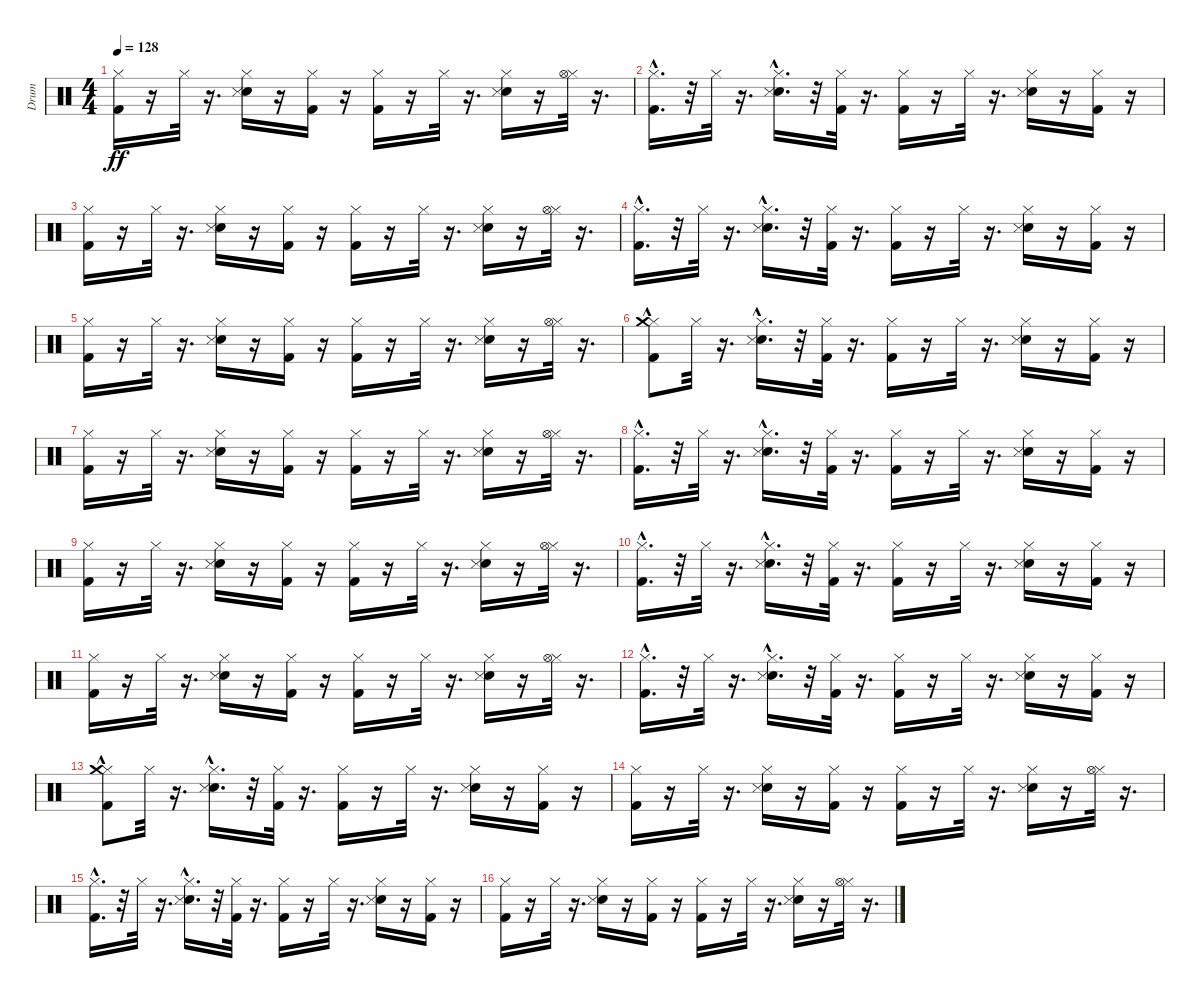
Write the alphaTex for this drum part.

\track ("Drum" "Drum") {instrument percussion}
\staff {score}
\articulation defaults
\ts (4 4)
\tempo 128
\clef neutral
\ks c
("Hi-Hat (closed)" "Kick (hit) 2").16{dy ff} r.16 "Hi-Hat (closed)".32 r.16{d} ("Electric Snare (hit)" "Hi-Hat (closed)" "Snare (side stick) 3").16 r.16 ("Kick (hit) 2" "Hi-Hat (closed)").16 r.16 ("Kick (hit) 2" "Hi-Hat (closed)").16 r.16 "Hi-Hat (closed)".32 r.16{d} ("Electric Snare (hit)" "Hi-Hat (closed)" "Snare (side stick) 3").16 r.16 ("Hi-Hat (closed)" "Hi-Hat (open)").32 r.16{d} |
("Kick (hit) 2"{hac} "Hi-Hat (closed)").16{d} r.32 "Hi-Hat (closed)".32 r.16{d} ("Electric Snare (hit)" "Hi-Hat (closed)" "Snare (side stick) 3"{hac}).16{d} r.32 ("Kick (hit) 2" "Hi-Hat (closed)").32 r.16{d} ("Kick (hit) 2" "Hi-Hat (closed)").16 r.16 "Hi-Hat (closed)".32 r.16{d} ("Electric Snare (hit)" "Hi-Hat (closed)" "Snare (side stick) 3").16 r.16 ("Kick (hit) 2" "Hi-Hat (closed)").16 r.16 |
("Hi-Hat (closed)" "Kick (hit) 2").16 r.16 "Hi-Hat (closed)".32 r.16{d} ("Electric Snare (hit)" "Hi-Hat (closed)" "Snare (side stick) 3").16 r.16 ("Kick (hit) 2" "Hi-Hat (closed)").16 r.16 ("Kick (hit) 2" "Hi-Hat (closed)").16 r.16 "Hi-Hat (closed)".32 r.16{d} ("Electric Snare (hit)" "Hi-Hat (closed)" "Snare (side stick) 3").16 r.16 ("Hi-Hat (closed)" "Hi-Hat (open)").32 r.16{d} |
("Kick (hit) 2"{hac} "Hi-Hat (closed)").16{d} r.32 "Hi-Hat (closed)".32 r.16{d} ("Electric Snare (hit)" "Hi-Hat (closed)" "Snare (side stick) 3"{hac}).16{d} r.32 ("Kick (hit) 2" "Hi-Hat (closed)").32 r.16{d} ("Kick (hit) 2" "Hi-Hat (closed)").16 r.16 "Hi-Hat (closed)".32 r.16{d} ("Electric Snare (hit)" "Hi-Hat (closed)" "Snare (side stick) 3").16 r.16 ("Kick (hit) 2" "Hi-Hat (closed)").16 r.16 |
("Hi-Hat (closed)" "Kick (hit) 2").16 r.16 "Hi-Hat (closed)".32 r.16{d} ("Electric Snare (hit)" "Hi-Hat (closed)" "Snare (side stick) 3").16 r.16 ("Kick (hit) 2" "Hi-Hat (closed)").16 r.16 ("Kick (hit) 2" "Hi-Hat (closed)").16 r.16 "Hi-Hat (closed)".32 r.16{d} ("Electric Snare (hit)" "Hi-Hat (closed)" "Snare (side stick) 3").16 r.16 ("Hi-Hat (closed)" "Hi-Hat (open)").32 r.16{d} |
("Kick (hit) 2"{hac} "Hi-Hat (closed)" "Crash medium (hit)").8 "Hi-Hat (closed)".32 r.16{d} ("Electric Snare (hit)" "Hi-Hat (closed)" "Snare (side stick) 3"{hac}).16{d} r.32 ("Kick (hit) 2" "Hi-Hat (closed)").32 r.16{d} ("Kick (hit) 2" "Hi-Hat (closed)").16 r.16 "Hi-Hat (closed)".32 r.16{d} ("Electric Snare (hit)" "Hi-Hat (closed)" "Snare (side stick) 3").16 r.16 ("Kick (hit) 2" "Hi-Hat (closed)").16 r.16 |
("Hi-Hat (closed)" "Kick (hit) 2").16 r.16 "Hi-Hat (closed)".32 r.16{d} ("Electric Snare (hit)" "Hi-Hat (closed)" "Snare (side stick) 3").16 r.16 ("Kick (hit) 2" "Hi-Hat (closed)").16 r.16 ("Kick (hit) 2" "Hi-Hat (closed)").16 r.16 "Hi-Hat (closed)".32 r.16{d} ("Electric Snare (hit)" "Hi-Hat (closed)" "Snare (side stick) 3").16 r.16 ("Hi-Hat (closed)" "Hi-Hat (open)").32 r.16{d} |
("Kick (hit) 2"{hac} "Hi-Hat (closed)").16{d} r.32 "Hi-Hat (closed)".32 r.16{d} ("Electric Snare (hit)" "Hi-Hat (closed)" "Snare (side stick) 3"{hac}).16{d} r.32 ("Kick (hit) 2" "Hi-Hat (closed)").32 r.16{d} ("Kick (hit) 2" "Hi-Hat (closed)").16 r.16 "Hi-Hat (closed)".32 r.16{d} ("Electric Snare (hit)" "Hi-Hat (closed)" "Snare (side stick) 3").16 r.16 ("Kick (hit) 2" "Hi-Hat (closed)").16 r.16 |
("Hi-Hat (closed)" "Kick (hit) 2").16 r.16 "Hi-Hat (closed)".32 r.16{d} ("Electric Snare (hit)" "Hi-Hat (closed)" "Snare (side stick) 3").16 r.16 ("Kick (hit) 2" "Hi-Hat (closed)").16 r.16 ("Kick (hit) 2" "Hi-Hat (closed)").16 r.16 "Hi-Hat (closed)".32 r.16{d} ("Electric Snare (hit)" "Hi-Hat (closed)" "Snare (side stick) 3").16 r.16 ("Hi-Hat (closed)" "Hi-Hat (open)").32 r.16{d} |
("Kick (hit) 2"{hac} "Hi-Hat (closed)").16{d} r.32 "Hi-Hat (closed)".32 r.16{d} ("Electric Snare (hit)" "Hi-Hat (closed)" "Snare (side stick) 3"{hac}).16{d} r.32 ("Kick (hit) 2" "Hi-Hat (closed)").32 r.16{d} ("Kick (hit) 2" "Hi-Hat (closed)").16 r.16 "Hi-Hat (closed)".32 r.16{d} ("Electric Snare (hit)" "Hi-Hat (closed)" "Snare (side stick) 3").16 r.16 ("Kick (hit) 2" "Hi-Hat (closed)").16 r.16 |
("Hi-Hat (closed)" "Kick (hit) 2").16 r.16 "Hi-Hat (closed)".32 r.16{d} ("Electric Snare (hit)" "Hi-Hat (closed)" "Snare (side stick) 3").16 r.16 ("Kick (hit) 2" "Hi-Hat (closed)").16 r.16 ("Kick (hit) 2" "Hi-Hat (closed)").16 r.16 "Hi-Hat (closed)".32 r.16{d} ("Electric Snare (hit)" "Hi-Hat (closed)" "Snare (side stick) 3").16 r.16 ("Hi-Hat (closed)" "Hi-Hat (open)").32 r.16{d} |
("Kick (hit) 2"{hac} "Hi-Hat (closed)").16{d} r.32 "Hi-Hat (closed)".32 r.16{d} ("Electric Snare (hit)" "Hi-Hat (closed)" "Snare (side stick) 3"{hac}).16{d} r.32 ("Kick (hit) 2" "Hi-Hat (closed)").32 r.16{d} ("Kick (hit) 2" "Hi-Hat (closed)").16 r.16 "Hi-Hat (closed)".32 r.16{d} ("Electric Snare (hit)" "Hi-Hat (closed)" "Snare (side stick) 3").16 r.16 ("Kick (hit) 2" "Hi-Hat (closed)").16 r.16 |
("Kick (hit) 2"{hac} "Hi-Hat (closed)" "Crash medium (hit)").8 "Hi-Hat (closed)".32 r.16{d} ("Electric Snare (hit)" "Hi-Hat (closed)" "Snare (side stick) 3"{hac}).16{d} r.32 ("Kick (hit) 2" "Hi-Hat (closed)").32 r.16{d} ("Kick (hit) 2" "Hi-Hat (closed)").16 r.16 "Hi-Hat (closed)".32 r.16{d} ("Electric Snare (hit)" "Hi-Hat (closed)" "Snare (side stick) 3").16 r.16 ("Kick (hit) 2" "Hi-Hat (closed)").16 r.16 |
("Hi-Hat (closed)" "Kick (hit) 2").16 r.16 "Hi-Hat (closed)".32 r.16{d} ("Electric Snare (hit)" "Hi-Hat (closed)" "Snare (side stick) 3").16 r.16 ("Kick (hit) 2" "Hi-Hat (closed)").16 r.16 ("Kick (hit) 2" "Hi-Hat (closed)").16 r.16 "Hi-Hat (closed)".32 r.16{d} ("Electric Snare (hit)" "Hi-Hat (closed)" "Snare (side stick) 3").16 r.16 ("Hi-Hat (closed)" "Hi-Hat (open)").32 r.16{d} |
("Kick (hit) 2"{hac} "Hi-Hat (closed)").16{d} r.32 "Hi-Hat (closed)".32 r.16{d} ("Electric Snare (hit)" "Hi-Hat (closed)" "Snare (side stick) 3"{hac}).16{d} r.32 ("Kick (hit) 2" "Hi-Hat (closed)").32 r.16{d} ("Kick (hit) 2" "Hi-Hat (closed)").16 r.16 "Hi-Hat (closed)".32 r.16{d} ("Electric Snare (hit)" "Hi-Hat (closed)" "Snare (side stick) 3").16 r.16 ("Kick (hit) 2" "Hi-Hat (closed)").16 r.16 |
("Hi-Hat (closed)" "Kick (hit) 2").16 r.16 "Hi-Hat (closed)".32 r.16{d} ("Electric Snare (hit)" "Hi-Hat (closed)" "Snare (side stick) 3").16 r.16 ("Kick (hit) 2" "Hi-Hat (closed)").16 r.16 ("Kick (hit) 2" "Hi-Hat (closed)").16 r.16 "Hi-Hat (closed)".32 r.16{d} ("Electric Snare (hit)" "Hi-Hat (closed)" "Snare (side stick) 3").16 r.16 ("Hi-Hat (closed)" "Hi-Hat (open)").32 r.16{d}
